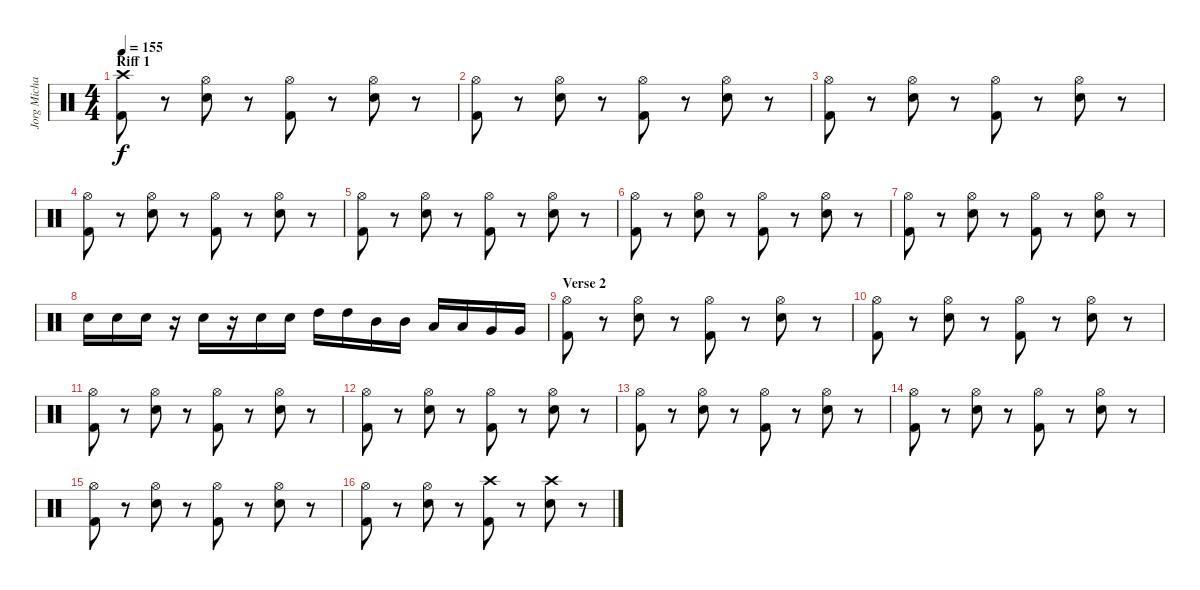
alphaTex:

\track ("Jorg Michael - Batteria" "Jorg Micha") {instrument percussion}
\staff {score}
\articulation defaults
\ts (4 4)
\section ("" "Riff 1")
\tempo 155
\clef neutral
\ks c
("Kick (hit) 2" "Crash high (hit)").8{dy f} r.8 ("Snare (hit) 2" "Hi-Hat (open)").8 r.8 ("Kick (hit) 2" "Hi-Hat (open)").8 r.8 ("Snare (hit) 2" "Hi-Hat (open)").8 r.8 |
("Kick (hit) 2" "Hi-Hat (open)").8 r.8 ("Snare (hit) 2" "Hi-Hat (open)").8 r.8 ("Kick (hit) 2" "Hi-Hat (open)").8 r.8 ("Snare (hit) 2" "Hi-Hat (open)").8 r.8 |
("Kick (hit) 2" "Hi-Hat (open)").8 r.8 ("Snare (hit) 2" "Hi-Hat (open)").8 r.8 ("Kick (hit) 2" "Hi-Hat (open)").8 r.8 ("Snare (hit) 2" "Hi-Hat (open)").8 r.8 |
("Kick (hit) 2" "Hi-Hat (open)").8 r.8 ("Snare (hit) 2" "Hi-Hat (open)").8 r.8 ("Kick (hit) 2" "Hi-Hat (open)").8 r.8 ("Snare (hit) 2" "Hi-Hat (open)").8 r.8 |
("Kick (hit) 2" "Hi-Hat (open)").8 r.8 ("Snare (hit) 2" "Hi-Hat (open)").8 r.8 ("Kick (hit) 2" "Hi-Hat (open)").8 r.8 ("Snare (hit) 2" "Hi-Hat (open)").8 r.8 |
("Kick (hit) 2" "Hi-Hat (open)").8 r.8 ("Snare (hit) 2" "Hi-Hat (open)").8 r.8 ("Kick (hit) 2" "Hi-Hat (open)").8 r.8 ("Snare (hit) 2" "Hi-Hat (open)").8 r.8 |
("Kick (hit) 2" "Hi-Hat (open)").8 r.8 ("Snare (hit) 2" "Hi-Hat (open)").8 r.8 ("Kick (hit) 2" "Hi-Hat (open)").8 r.8 ("Snare (hit) 2" "Hi-Hat (open)").8 r.8 |
"Snare (hit) 2".16 "Snare (hit) 2".16 "Snare (hit) 2".16 r.16 "Snare (hit) 2".16 r.16 "Snare (hit) 2".16 "Snare (hit) 2".16 "High Tom (hit)".16 "High Tom (hit)".16 "Mid Tom (hit)".16 "Mid Tom (hit)".16 "Low Tom (hit)".16 "Low Tom (hit)".16 "Very Low Tom (hit)".16 "Very Low Tom (hit)".16 |
\section ("" "Verse 2")
("Kick (hit) 2" "Hi-Hat (open)").8 r.8 ("Snare (hit) 2" "Hi-Hat (open)").8 r.8 ("Kick (hit) 2" "Hi-Hat (open)").8 r.8 ("Snare (hit) 2" "Hi-Hat (open)").8 r.8 |
("Kick (hit) 2" "Hi-Hat (open)").8 r.8 ("Snare (hit) 2" "Hi-Hat (open)").8 r.8 ("Kick (hit) 2" "Hi-Hat (open)").8 r.8 ("Snare (hit) 2" "Hi-Hat (open)").8 r.8 |
("Kick (hit) 2" "Hi-Hat (open)").8 r.8 ("Snare (hit) 2" "Hi-Hat (open)").8 r.8 ("Kick (hit) 2" "Hi-Hat (open)").8 r.8 ("Snare (hit) 2" "Hi-Hat (open)").8 r.8 |
("Kick (hit) 2" "Hi-Hat (open)").8 r.8 ("Snare (hit) 2" "Hi-Hat (open)").8 r.8 ("Kick (hit) 2" "Hi-Hat (open)").8 r.8 ("Snare (hit) 2" "Hi-Hat (open)").8 r.8 |
("Kick (hit) 2" "Hi-Hat (open)").8 r.8 ("Snare (hit) 2" "Hi-Hat (open)").8 r.8 ("Kick (hit) 2" "Hi-Hat (open)").8 r.8 ("Snare (hit) 2" "Hi-Hat (open)").8 r.8 |
("Kick (hit) 2" "Hi-Hat (open)").8 r.8 ("Snare (hit) 2" "Hi-Hat (open)").8 r.8 ("Kick (hit) 2" "Hi-Hat (open)").8 r.8 ("Snare (hit) 2" "Hi-Hat (open)").8 r.8 |
("Kick (hit) 2" "Hi-Hat (open)").8 r.8 ("Snare (hit) 2" "Hi-Hat (open)").8 r.8 ("Kick (hit) 2" "Hi-Hat (open)").8 r.8 ("Snare (hit) 2" "Hi-Hat (open)").8 r.8 |
("Kick (hit) 2" "Hi-Hat (open)").8 r.8 ("Snare (hit) 2" "Hi-Hat (open)").8 r.8 ("Kick (hit) 2" "Crash high (hit)").8 r.8 ("Snare (hit) 2" "Crash high (hit)").8 r.8
